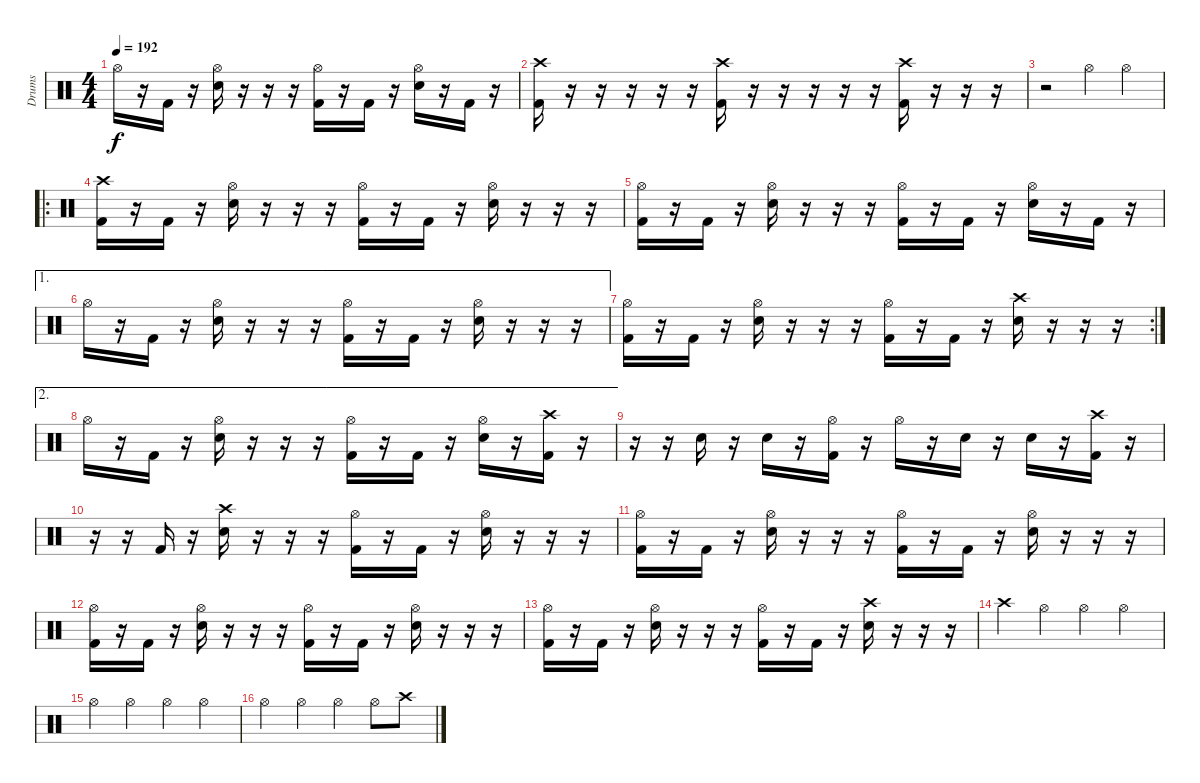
\track ("Drums" "Drums") {instrument percussion}
\staff {score}
\articulation defaults
\ts (4 4)
\tempo 192
\clef neutral
\ks c "Hi-Hat (open)".16{dy f}
r.16 "Kick (hit) 2".16 r.16 ("Hi-Hat (open)" "Electric Snare (hit)").16 r.16 r.16 r.16 ("Hi-Hat (open)" "Kick (hit) 2").16 r.16 "Kick (hit) 2".16 r.16 ("Hi-Hat (open)" "Electric Snare (hit)").16 r.16 "Kick (hit) 2".16 r.16 |
("Crash high (hit)" "Kick (hit) 2").16 r.16 r.16 r.16 r.16 r.16 ("Crash high (hit)" "Kick (hit) 2").16 r.16 r.16 r.16 r.16 r.16 ("Crash high (hit)" "Kick (hit) 2").16 r.16 r.16 r.16 |
r.2 "Hi-Hat (open)".4 "Hi-Hat (open)".4 |
\ro
("Crash high (hit)" "Kick (hit) 2").16 r.16 "Kick (hit) 2".16 r.16 ("Hi-Hat (open)" "Electric Snare (hit)").16 r.16 r.16 r.16 ("Hi-Hat (open)" "Kick (hit) 2").16 r.16 "Kick (hit) 2".16 r.16 ("Hi-Hat (open)" "Electric Snare (hit)").16 r.16 r.16 r.16 |
("Hi-Hat (open)" "Kick (hit) 2").16 r.16 "Kick (hit) 2".16 r.16 ("Hi-Hat (open)" "Electric Snare (hit)").16 r.16 r.16 r.16 ("Hi-Hat (open)" "Kick (hit) 2").16 r.16 "Kick (hit) 2".16 r.16 ("Hi-Hat (open)" "Electric Snare (hit)").16 r.16 "Kick (hit) 2".16 r.16 |
\ae 1 "Hi-Hat (open)".16
r.16 "Kick (hit) 2".16 r.16 ("Hi-Hat (open)" "Electric Snare (hit)").16 r.16 r.16 r.16 ("Hi-Hat (open)" "Kick (hit) 2").16 r.16 "Kick (hit) 2".16 r.16 ("Hi-Hat (open)" "Electric Snare (hit)").16 r.16 r.16 r.16 |
\rc 2
("Hi-Hat (open)" "Kick (hit) 2").16 r.16 "Kick (hit) 2".16 r.16 ("Hi-Hat (open)" "Electric Snare (hit)").16 r.16 r.16 r.16 ("Hi-Hat (open)" "Kick (hit) 2").16 r.16 "Kick (hit) 2".16 r.16 ("Crash high (hit)" "Electric Snare (hit)").16 r.16 r.16 r.16 |
\ae 2 "Hi-Hat (open)".16
r.16 "Kick (hit) 2".16 r.16 ("Hi-Hat (open)" "Electric Snare (hit)").16 r.16 r.16 r.16 ("Hi-Hat (open)" "Kick (hit) 2").16 r.16 "Kick (hit) 2".16 r.16 ("Hi-Hat (open)" "Electric Snare (hit)").16 r.16 ("Crash high (hit)" "Kick (hit) 2").16 r.16 |
r.16 r.16 "Electric Snare (hit)".16 r.16 "Electric Snare (hit)".16 r.16 ("Hi-Hat (open)" "Kick (hit) 2").16 r.16 "Hi-Hat (open)".16 r.16 "Electric Snare (hit)".16 r.16 "Electric Snare (hit)".16 r.16 ("Crash high (hit)" "Kick (hit) 2").16 r.16 |
r.16 r.16 "Kick (hit) 2".16 r.16 ("Crash high (hit)" "Electric Snare (hit)").16 r.16 r.16 r.16 ("Hi-Hat (open)" "Kick (hit) 2").16 r.16 "Kick (hit) 2".16 r.16 ("Hi-Hat (open)" "Electric Snare (hit)").16 r.16 r.16 r.16 |
("Hi-Hat (open)" "Kick (hit) 2").16 r.16 "Kick (hit) 2".16 r.16 ("Hi-Hat (open)" "Electric Snare (hit)").16 r.16 r.16 r.16 ("Hi-Hat (open)" "Kick (hit) 2").16 r.16 "Kick (hit) 2".16 r.16 ("Hi-Hat (open)" "Electric Snare (hit)").16 r.16 r.16 r.16 |
("Hi-Hat (open)" "Kick (hit) 2").16 r.16 "Kick (hit) 2".16 r.16 ("Hi-Hat (open)" "Electric Snare (hit)").16 r.16 r.16 r.16 ("Hi-Hat (open)" "Kick (hit) 2").16 r.16 "Kick (hit) 2".16 r.16 ("Hi-Hat (open)" "Electric Snare (hit)").16 r.16 r.16 r.16 |
("Hi-Hat (open)" "Kick (hit) 2").16 r.16 "Kick (hit) 2".16 r.16 ("Hi-Hat (open)" "Electric Snare (hit)").16 r.16 r.16 r.16 ("Hi-Hat (open)" "Kick (hit) 2").16 r.16 "Kick (hit) 2".16 r.16 ("Crash high (hit)" "Electric Snare (hit)").16 r.16 r.16 r.16 |
"Crash high (hit)".4 "Hi-Hat (open)".4 "Hi-Hat (open)".4 "Hi-Hat (open)".4 |
"Hi-Hat (open)".4 "Hi-Hat (open)".4 "Hi-Hat (open)".4 "Hi-Hat (open)".4 |
"Hi-Hat (open)".4 "Hi-Hat (open)".4 "Hi-Hat (open)".4 "Hi-Hat (open)".8 "Crash high (hit)".8
